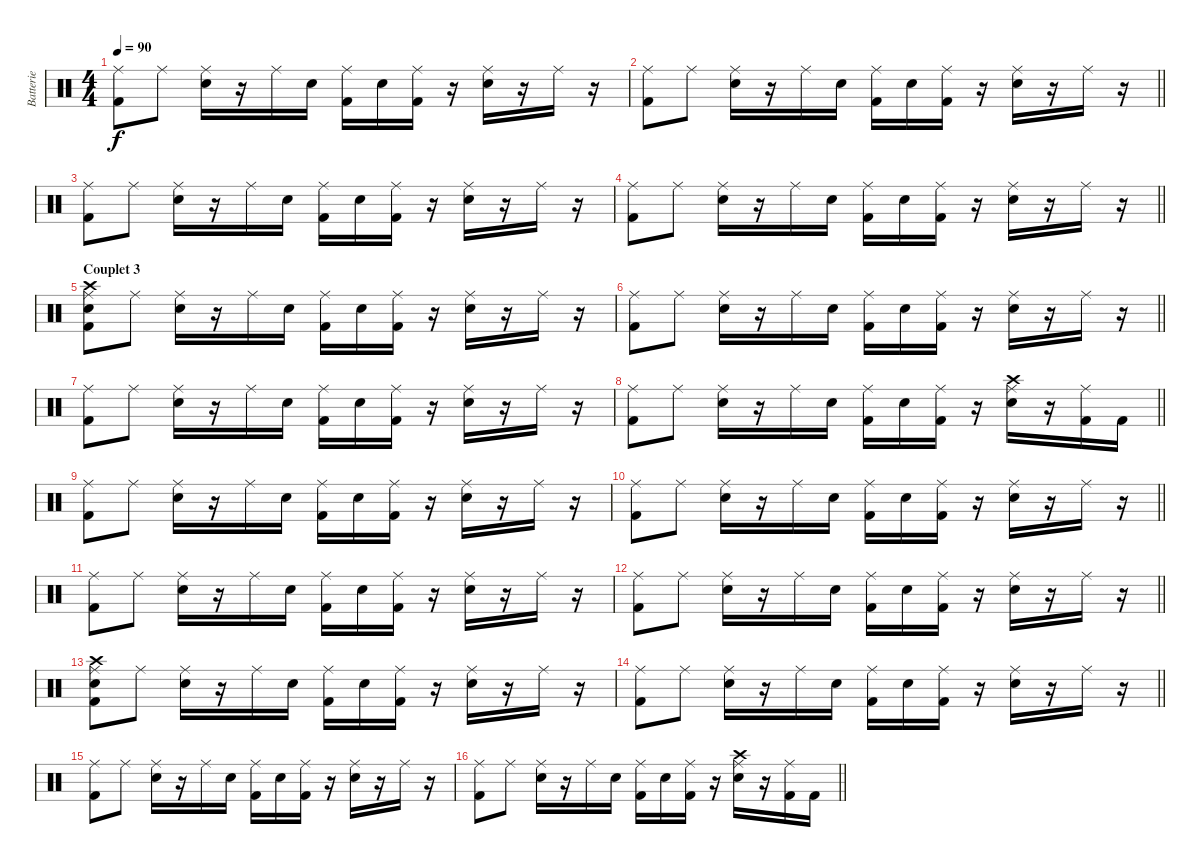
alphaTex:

\track ("Batterie" "Batterie") {instrument percussion}
\staff {score}
\articulation defaults
\ts (4 4)
\tempo 90
\clef neutral
\ks c
("Ride (middle)" "Kick (hit) 2").8{dy f} "Ride (middle)".8 ("Ride (middle)" "Electric Snare (hit)").16 r.16 "Ride (middle)".16 "Electric Snare (hit)".16 ("Ride (middle)" "Kick (hit) 2").16 "Electric Snare (hit)".16 ("Ride (middle)" "Kick (hit) 2").16 r.16 ("Ride (middle)" "Electric Snare (hit)").16 r.16 "Ride (middle)".16 r.16 |
\barLineRight lightlight
("Ride (middle)" "Kick (hit) 2").8 "Ride (middle)".8 ("Ride (middle)" "Electric Snare (hit)").16 r.16 "Ride (middle)".16 "Electric Snare (hit)".16 ("Ride (middle)" "Kick (hit) 2").16 "Electric Snare (hit)".16 ("Ride (middle)" "Kick (hit) 2").16 r.16 ("Ride (middle)" "Electric Snare (hit)").16 r.16 "Ride (middle)".16 r.16 |
("Ride (middle)" "Kick (hit) 2").8 "Ride (middle)".8 ("Ride (middle)" "Electric Snare (hit)").16 r.16 "Ride (middle)".16 "Electric Snare (hit)".16 ("Ride (middle)" "Kick (hit) 2").16 "Electric Snare (hit)".16 ("Ride (middle)" "Kick (hit) 2").16 r.16 ("Ride (middle)" "Electric Snare (hit)").16 r.16 "Ride (middle)".16 r.16 |
\barLineRight lightlight
("Ride (middle)" "Kick (hit) 2").8 "Ride (middle)".8 ("Ride (middle)" "Electric Snare (hit)").16 r.16 "Ride (middle)".16 "Electric Snare (hit)".16 ("Ride (middle)" "Kick (hit) 2").16 "Electric Snare (hit)".16 ("Ride (middle)" "Kick (hit) 2").16 r.16 ("Ride (middle)" "Electric Snare (hit)").16 r.16 "Ride (middle)".16 r.16 |
\section ("" "Couplet 3")
("Crash high (hit)" "Ride (middle)" "Electric Snare (hit)" "Kick (hit) 2").8 "Ride (middle)".8 ("Ride (middle)" "Electric Snare (hit)").16 r.16 "Ride (middle)".16 "Electric Snare (hit)".16 ("Ride (middle)" "Kick (hit) 2").16 "Electric Snare (hit)".16 ("Ride (middle)" "Kick (hit) 2").16 r.16 ("Ride (middle)" "Electric Snare (hit)").16 r.16 "Ride (middle)".16 r.16 |
\barLineRight lightlight
("Ride (middle)" "Kick (hit) 2").8 "Ride (middle)".8 ("Ride (middle)" "Electric Snare (hit)").16 r.16 "Ride (middle)".16 "Electric Snare (hit)".16 ("Ride (middle)" "Kick (hit) 2").16 "Electric Snare (hit)".16 ("Ride (middle)" "Kick (hit) 2").16 r.16 ("Ride (middle)" "Electric Snare (hit)").16 r.16 "Ride (middle)".16 r.16 |
("Ride (middle)" "Kick (hit) 2").8 "Ride (middle)".8 ("Ride (middle)" "Electric Snare (hit)").16 r.16 "Ride (middle)".16 "Electric Snare (hit)".16 ("Ride (middle)" "Kick (hit) 2").16 "Electric Snare (hit)".16 ("Ride (middle)" "Kick (hit) 2").16 r.16 ("Ride (middle)" "Electric Snare (hit)").16 r.16 "Ride (middle)".16 r.16 |
\barLineRight lightlight
("Ride (middle)" "Kick (hit) 2").8 "Ride (middle)".8 ("Ride (middle)" "Electric Snare (hit)").16 r.16 "Ride (middle)".16 "Electric Snare (hit)".16 ("Ride (middle)" "Kick (hit) 2").16 "Electric Snare (hit)".16 ("Ride (middle)" "Kick (hit) 2").16 r.16 ("Ride (middle)" "Crash high (hit)" "Electric Snare (hit)").16 r.16 ("Ride (middle)" "Kick (hit) 2").16 "Kick (hit) 2".16 |
("Ride (middle)" "Kick (hit) 2").8 "Ride (middle)".8 ("Ride (middle)" "Electric Snare (hit)").16 r.16 "Ride (middle)".16 "Electric Snare (hit)".16 ("Ride (middle)" "Kick (hit) 2").16 "Electric Snare (hit)".16 ("Ride (middle)" "Kick (hit) 2").16 r.16 ("Ride (middle)" "Electric Snare (hit)").16 r.16 "Ride (middle)".16 r.16 |
\barLineRight lightlight
("Ride (middle)" "Kick (hit) 2").8 "Ride (middle)".8 ("Ride (middle)" "Electric Snare (hit)").16 r.16 "Ride (middle)".16 "Electric Snare (hit)".16 ("Ride (middle)" "Kick (hit) 2").16 "Electric Snare (hit)".16 ("Ride (middle)" "Kick (hit) 2").16 r.16 ("Ride (middle)" "Electric Snare (hit)").16 r.16 "Ride (middle)".16 r.16 |
("Ride (middle)" "Kick (hit) 2").8 "Ride (middle)".8 ("Ride (middle)" "Electric Snare (hit)").16 r.16 "Ride (middle)".16 "Electric Snare (hit)".16 ("Ride (middle)" "Kick (hit) 2").16 "Electric Snare (hit)".16 ("Ride (middle)" "Kick (hit) 2").16 r.16 ("Ride (middle)" "Electric Snare (hit)").16 r.16 "Ride (middle)".16 r.16 |
\barLineRight lightlight
("Ride (middle)" "Kick (hit) 2").8 "Ride (middle)".8 ("Ride (middle)" "Electric Snare (hit)").16 r.16 "Ride (middle)".16 "Electric Snare (hit)".16 ("Ride (middle)" "Kick (hit) 2").16 "Electric Snare (hit)".16 ("Ride (middle)" "Kick (hit) 2").16 r.16 ("Ride (middle)" "Electric Snare (hit)").16 r.16 "Ride (middle)".16 r.16 |
("Crash high (hit)" "Ride (middle)" "Electric Snare (hit)" "Kick (hit) 2").8 "Ride (middle)".8 ("Ride (middle)" "Electric Snare (hit)").16 r.16 "Ride (middle)".16 "Electric Snare (hit)".16 ("Ride (middle)" "Kick (hit) 2").16 "Electric Snare (hit)".16 ("Ride (middle)" "Kick (hit) 2").16 r.16 ("Ride (middle)" "Electric Snare (hit)").16 r.16 "Ride (middle)".16 r.16 |
\barLineRight lightlight
("Ride (middle)" "Kick (hit) 2").8 "Ride (middle)".8 ("Ride (middle)" "Electric Snare (hit)").16 r.16 "Ride (middle)".16 "Electric Snare (hit)".16 ("Ride (middle)" "Kick (hit) 2").16 "Electric Snare (hit)".16 ("Ride (middle)" "Kick (hit) 2").16 r.16 ("Ride (middle)" "Electric Snare (hit)").16 r.16 "Ride (middle)".16 r.16 |
("Ride (middle)" "Kick (hit) 2").8 "Ride (middle)".8 ("Ride (middle)" "Electric Snare (hit)").16 r.16 "Ride (middle)".16 "Electric Snare (hit)".16 ("Ride (middle)" "Kick (hit) 2").16 "Electric Snare (hit)".16 ("Ride (middle)" "Kick (hit) 2").16 r.16 ("Ride (middle)" "Electric Snare (hit)").16 r.16 "Ride (middle)".16 r.16 |
\barLineRight lightlight
("Ride (middle)" "Kick (hit) 2").8 "Ride (middle)".8 ("Ride (middle)" "Electric Snare (hit)").16 r.16 "Ride (middle)".16 "Electric Snare (hit)".16 ("Ride (middle)" "Kick (hit) 2").16 "Electric Snare (hit)".16 ("Ride (middle)" "Kick (hit) 2").16 r.16 ("Ride (middle)" "Crash high (hit)" "Electric Snare (hit)").16 r.16 ("Ride (middle)" "Kick (hit) 2").16 "Kick (hit) 2".16
